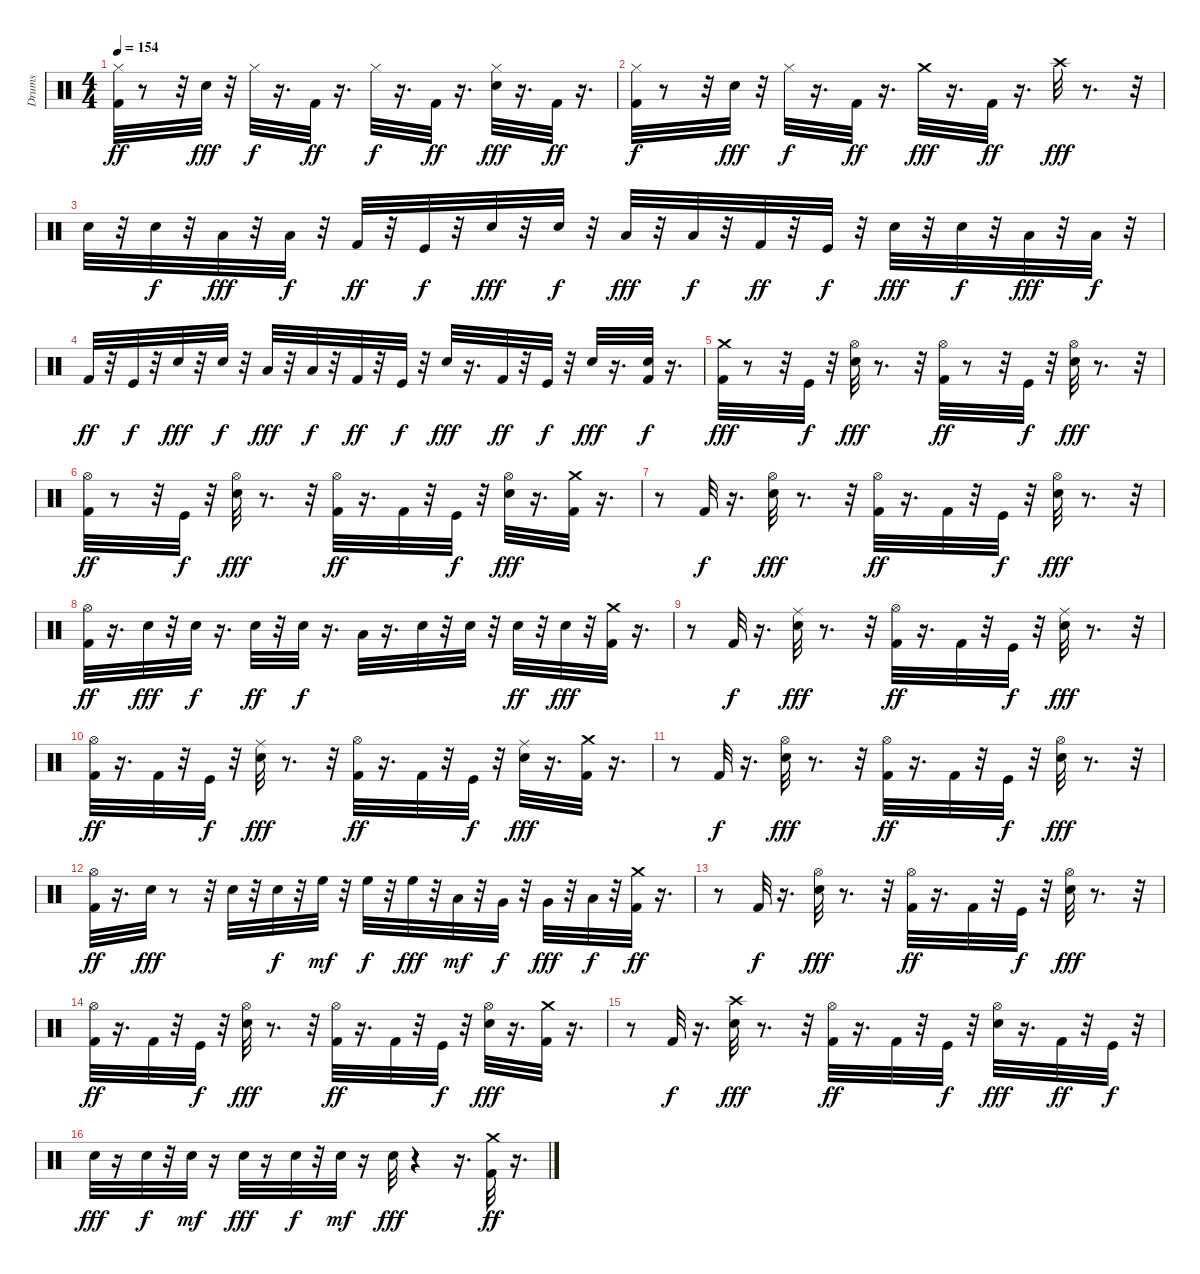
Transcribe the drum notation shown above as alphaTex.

\track ("Drums" "Drums") {instrument percussion}
\staff {score}
\articulation defaults
\ts (4 4)
\tempo 154
\clef neutral
\ks c
("Kick (hit) 2" "Hi-Hat (closed)").32{dy ff} r.8 r.32 "Snare (hit) 2".32{dy fff} r.32 "Hi-Hat (closed)".32{dy f} r.16{d} "Kick (hit) 2".32{dy ff} r.16{d} "Hi-Hat (closed)".32{dy f} r.16{d} "Kick (hit) 2".32{dy ff} r.16{d} ("Snare (hit) 2" "Hi-Hat (closed)").32{dy fff} r.16{d} "Kick (hit) 2".32{dy ff} r.16{d} |
("Kick (hit) 2" "Hi-Hat (closed)").32{dy f} r.8 r.32 "Snare (hit) 2".32{dy fff} r.32 "Hi-Hat (closed)".32{dy f} r.16{d} "Kick (hit) 2".32{dy ff} r.16{d} "Crash medium (hit)".32{dy fff} r.16{d} "Kick (hit) 2".32{dy ff} r.16{d} "Crash high (hit)".32{dy fff} r.8{d} r.32 |
"Snare (hit) 2".32 r.32 "Snare (hit) 2".32{dy f} r.32 "Low Tom (hit)".32{dy fff} r.32 "Low Tom (hit)".32{dy f} r.32 "Kick (hit) 2".32{dy ff} r.32 "Kick (hit)".32{dy f} r.32 "Snare (hit) 2".32{dy fff} r.32 "Snare (hit) 2".32{dy f} r.32 "Low Tom (hit)".32{dy fff} r.32 "Low Tom (hit)".32{dy f} r.32 "Kick (hit) 2".32{dy ff} r.32 "Kick (hit)".32{dy f} r.32 "Snare (hit) 2".32{dy fff} r.32 "Snare (hit) 2".32{dy f} r.32 "Low Tom (hit)".32{dy fff} r.32 "Low Tom (hit)".32{dy f} r.32 |
"Kick (hit) 2".32{dy ff} r.32 "Kick (hit)".32{dy f} r.32 "Snare (hit) 2".32{dy fff} r.32 "Snare (hit) 2".32{dy f} r.32 "Low Tom (hit)".32{dy fff} r.32 "Low Tom (hit)".32{dy f} r.32 "Kick (hit) 2".32{dy ff} r.32 "Kick (hit)".32{dy f} r.32 "Snare (hit) 2".32{dy fff} r.16{d} "Kick (hit) 2".32{dy ff} r.32 "Kick (hit)".32{dy f} r.32 "Snare (hit) 2".32{dy fff} r.16{d} ("Kick (hit) 2" "Snare (hit) 2").32{dy f} r.16{d} |
("Kick (hit) 2" "Crash medium (hit)").32{dy fff} r.8 r.32 "Kick (hit)".32{dy f} r.32 ("Snare (hit) 2" "Hi-Hat (open)").32{dy fff} r.8{d} r.32 ("Kick (hit) 2" "Hi-Hat (open)").32{dy ff} r.8 r.32 "Kick (hit)".32{dy f} r.32 ("Snare (hit) 2" "Hi-Hat (open)").32{dy fff} r.8{d} r.32 |
("Kick (hit) 2" "Hi-Hat (open)").32{dy ff} r.8 r.32 "Kick (hit)".32{dy f} r.32 ("Snare (hit) 2" "Hi-Hat (open)").32{dy fff} r.8{d} r.32 ("Kick (hit) 2" "Hi-Hat (open)").32{dy ff} r.16{d} "Kick (hit) 2".32 r.32 "Kick (hit)".32{dy f} r.32 ("Snare (hit) 2" "Hi-Hat (open)").32{dy fff} r.16{d} ("Kick (hit) 2" "Crash medium (hit)").32 r.16{d} |
r.8 "Kick (hit) 2".32{dy f} r.16{d} ("Snare (hit) 2" "Hi-Hat (open)").32{dy fff} r.8{d} r.32 ("Kick (hit) 2" "Hi-Hat (open)").32{dy ff} r.16{d} "Kick (hit) 2".32 r.32 "Kick (hit)".32{dy f} r.32 ("Snare (hit) 2" "Hi-Hat (open)").32{dy fff} r.8{d} r.32 |
("Kick (hit) 2" "Hi-Hat (open)").32{dy ff} r.16{d} "Snare (hit) 2".32{dy fff} r.32 "Snare (hit) 2".32{dy f} r.16{d} "Snare (hit) 2".32{dy ff} r.32 "Snare (hit) 2".32{dy f} r.16{d} "Low Tom (hit)".32 r.16{d} "Snare (hit) 2".32 r.32 "Snare (hit) 2".32 r.32 "Snare (hit) 2".32{dy ff} r.32 "Snare (hit) 2".32{dy fff} r.32 ("Kick (hit) 2" "Crash medium (hit)").32 r.16{d} |
r.8 "Kick (hit) 2".32{dy f} r.16{d} ("Snare (hit) 2" "Ride (middle)").32{dy fff} r.8{d} r.32 ("Kick (hit) 2" "Hi-Hat (open)").32{dy ff} r.16{d} "Kick (hit) 2".32 r.32 "Kick (hit)".32{dy f} r.32 ("Snare (hit) 2" "Ride (middle)").32{dy fff} r.8{d} r.32 |
("Kick (hit) 2" "Hi-Hat (open)").32{dy ff} r.16{d} "Kick (hit) 2".32 r.32 "Kick (hit)".32{dy f} r.32 ("Snare (hit) 2" "Ride (middle)").32{dy fff} r.8{d} r.32 ("Kick (hit) 2" "Hi-Hat (open)").32{dy ff} r.16{d} "Kick (hit) 2".32 r.32 "Kick (hit)".32{dy f} r.32 ("Snare (hit) 2" "Ride (middle)").32{dy fff} r.16{d} ("Kick (hit) 2" "Crash medium (hit)").32 r.16{d} |
r.8 "Kick (hit) 2".32{dy f} r.16{d} ("Snare (hit) 2" "Hi-Hat (open)").32{dy fff} r.8{d} r.32 ("Kick (hit) 2" "Hi-Hat (open)").32{dy ff} r.16{d} "Kick (hit) 2".32 r.32 "Kick (hit)".32{dy f} r.32 ("Snare (hit) 2" "Hi-Hat (open)").32{dy fff} r.8{d} r.32 |
("Kick (hit) 2" "Hi-Hat (open)").32{dy ff} r.16{d} "Snare (hit) 2".32{dy fff} r.8 r.32 "Snare (hit) 2".32 r.32 "Snare (hit) 2".32{dy f} r.32 "High Floor Tom (hit)".32{dy mf} r.32 "High Floor Tom (hit)".32{dy f} r.32 "High Floor Tom (hit)".32{dy fff} r.32 "Low Tom (hit)".32{dy mf} r.32 "Very Low Tom (hit)".32{dy f} r.32 "Very Low Tom (hit)".32{dy fff} r.32 "Low Floor Tom (hit)".32{dy f} r.32 ("Crash medium (hit)" "Kick (hit) 2").32{dy ff} r.16{d} |
r.8 "Kick (hit) 2".32{dy f} r.16{d} ("Snare (hit) 2" "Hi-Hat (open)").32{dy fff} r.8{d} r.32 ("Kick (hit) 2" "Hi-Hat (open)").32{dy ff} r.16{d} "Kick (hit) 2".32 r.32 "Kick (hit)".32{dy f} r.32 ("Snare (hit) 2" "Hi-Hat (open)").32{dy fff} r.8{d} r.32 |
("Kick (hit) 2" "Hi-Hat (open)").32{dy ff} r.16{d} "Kick (hit) 2".32 r.32 "Kick (hit)".32{dy f} r.32 ("Snare (hit) 2" "Hi-Hat (open)").32{dy fff} r.8{d} r.32 ("Kick (hit) 2" "Hi-Hat (open)").32{dy ff} r.16{d} "Kick (hit) 2".32 r.32 "Kick (hit)".32{dy f} r.32 ("Snare (hit) 2" "Hi-Hat (open)").32{dy fff} r.16{d} ("Kick (hit) 2" "Crash medium (hit)").32 r.16{d} |
r.8 "Kick (hit) 2".32{dy f} r.16{d} ("Snare (hit) 2" "Crash high (hit)").32{dy fff} r.8{d} r.32 ("Kick (hit) 2" "Hi-Hat (open)").32{dy ff} r.16{d} "Kick (hit) 2".32 r.32 "Kick (hit)".32{dy f} r.32 ("Snare (hit) 2" "Hi-Hat (open)").32{dy fff} r.16{d} "Kick (hit) 2".32{dy ff} r.32 "Kick (hit)".32{dy f} r.32 |
"Snare (hit) 2".32{dy fff} r.16 "Snare (hit) 2".32{dy f} r.32 "Snare (hit) 2".32{dy mf} r.16 "Snare (hit) 2".32{dy fff} r.16 "Snare (hit) 2".32{dy f} r.32 "Snare (hit) 2".32{dy mf} r.16 "Snare (hit) 2".32{dy fff} r.4 r.16{d} ("Crash medium (hit)" "Kick (hit) 2").32{dy ff} r.16{d}
